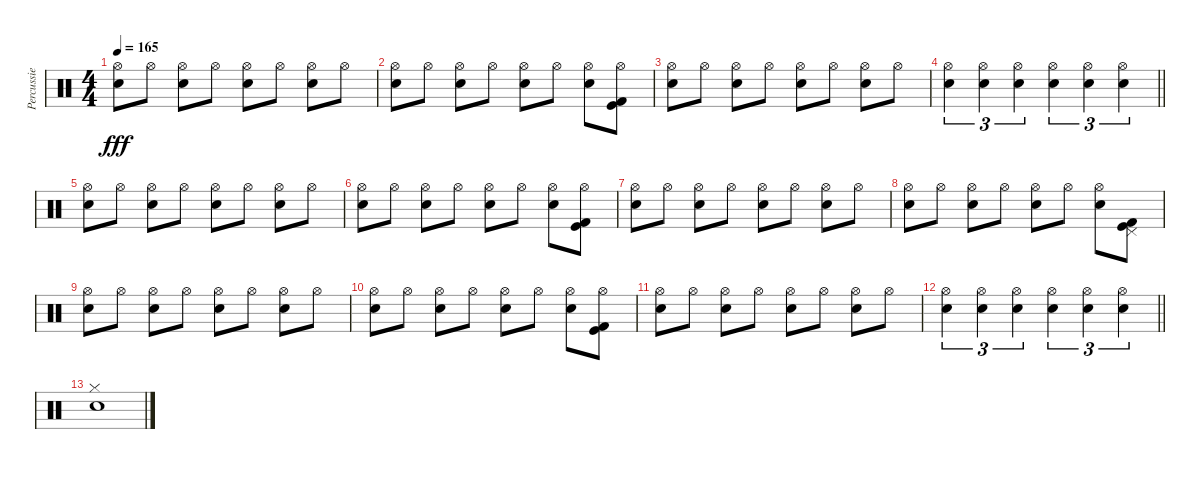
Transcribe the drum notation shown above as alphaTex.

\track ("Percussie" "Percussie") {instrument percussion}
\staff {score}
\articulation defaults
\ts (4 4)
\tempo 165
\clef neutral
\ks c
("Hi-Hat (open)" "Snare (hit) 2").8{dy fff} "Hi-Hat (open)".8 ("Hi-Hat (open)" "Snare (hit) 2").8 "Hi-Hat (open)".8 ("Hi-Hat (open)" "Snare (hit) 2").8 "Hi-Hat (open)".8 ("Hi-Hat (open)" "Snare (hit) 2").8 "Hi-Hat (open)".8 |
("Hi-Hat (open)" "Snare (hit) 2").8 "Hi-Hat (open)".8 ("Hi-Hat (open)" "Snare (hit) 2").8 "Hi-Hat (open)".8 ("Hi-Hat (open)" "Snare (hit) 2").8 "Hi-Hat (open)".8 ("Hi-Hat (open)" "Snare (hit) 2").8 ("Hi-Hat (open)" "Kick (hit)" "Kick (hit) 2").8 |
("Hi-Hat (open)" "Snare (hit) 2").8 "Hi-Hat (open)".8 ("Hi-Hat (open)" "Snare (hit) 2").8 "Hi-Hat (open)".8 ("Hi-Hat (open)" "Snare (hit) 2").8 "Hi-Hat (open)".8 ("Hi-Hat (open)" "Snare (hit) 2").8 "Hi-Hat (open)".8 |
\barLineRight lightlight
("Hi-Hat (open)" "Snare (hit) 2").4{tu (3 2)} ("Hi-Hat (open)" "Snare (hit) 2").4{tu (3 2)} ("Hi-Hat (open)" "Snare (hit) 2").4{tu (3 2)} ("Hi-Hat (open)" "Snare (hit) 2").4{tu (3 2)} ("Hi-Hat (open)" "Snare (hit) 2").4{tu (3 2)} ("Hi-Hat (open)" "Snare (hit) 2").4{tu (3 2)} |
("Hi-Hat (open)" "Snare (hit) 2").8 "Hi-Hat (open)".8 ("Hi-Hat (open)" "Snare (hit) 2").8 "Hi-Hat (open)".8 ("Hi-Hat (open)" "Snare (hit) 2").8 "Hi-Hat (open)".8 ("Hi-Hat (open)" "Snare (hit) 2").8 "Hi-Hat (open)".8 |
("Hi-Hat (open)" "Snare (hit) 2").8 "Hi-Hat (open)".8 ("Hi-Hat (open)" "Snare (hit) 2").8 "Hi-Hat (open)".8 ("Hi-Hat (open)" "Snare (hit) 2").8 "Hi-Hat (open)".8 ("Hi-Hat (open)" "Snare (hit) 2").8 ("Hi-Hat (open)" "Kick (hit)" "Kick (hit) 2").8 |
("Hi-Hat (open)" "Snare (hit) 2").8 "Hi-Hat (open)".8 ("Hi-Hat (open)" "Snare (hit) 2").8 "Hi-Hat (open)".8 ("Hi-Hat (open)" "Snare (hit) 2").8 "Hi-Hat (open)".8 ("Hi-Hat (open)" "Snare (hit) 2").8 "Hi-Hat (open)".8 |
("Hi-Hat (open)" "Snare (hit) 2").8 "Hi-Hat (open)".8 ("Hi-Hat (open)" "Snare (hit) 2").8 "Hi-Hat (open)".8 ("Hi-Hat (open)" "Snare (hit) 2").8 "Hi-Hat (open)".8 ("Hi-Hat (open)" "Snare (hit) 2").8 ("Pedal Hi-Hat (hit)" "Kick (hit)" "Kick (hit) 2").8 |
("Hi-Hat (open)" "Snare (hit) 2").8 "Hi-Hat (open)".8 ("Hi-Hat (open)" "Snare (hit) 2").8 "Hi-Hat (open)".8 ("Hi-Hat (open)" "Snare (hit) 2").8 "Hi-Hat (open)".8 ("Hi-Hat (open)" "Snare (hit) 2").8 "Hi-Hat (open)".8 |
("Hi-Hat (open)" "Snare (hit) 2").8 "Hi-Hat (open)".8 ("Hi-Hat (open)" "Snare (hit) 2").8 "Hi-Hat (open)".8 ("Hi-Hat (open)" "Snare (hit) 2").8 "Hi-Hat (open)".8 ("Hi-Hat (open)" "Snare (hit) 2").8 ("Hi-Hat (open)" "Kick (hit)" "Kick (hit) 2").8 |
("Hi-Hat (open)" "Snare (hit) 2").8 "Hi-Hat (open)".8 ("Hi-Hat (open)" "Snare (hit) 2").8 "Hi-Hat (open)".8 ("Hi-Hat (open)" "Snare (hit) 2").8 "Hi-Hat (open)".8 ("Hi-Hat (open)" "Snare (hit) 2").8 "Hi-Hat (open)".8 |
\barLineRight lightlight
("Hi-Hat (open)" "Snare (hit) 2").4{tu (3 2)} ("Hi-Hat (open)" "Snare (hit) 2").4{tu (3 2)} ("Hi-Hat (open)" "Snare (hit) 2").4{tu (3 2)} ("Hi-Hat (open)" "Snare (hit) 2").4{tu (3 2)} ("Hi-Hat (open)" "Snare (hit) 2").4{tu (3 2)} ("Hi-Hat (open)" "Snare (hit) 2").4{tu (3 2)} |
("Hi-Hat (closed)" "Snare (hit) 2").1
